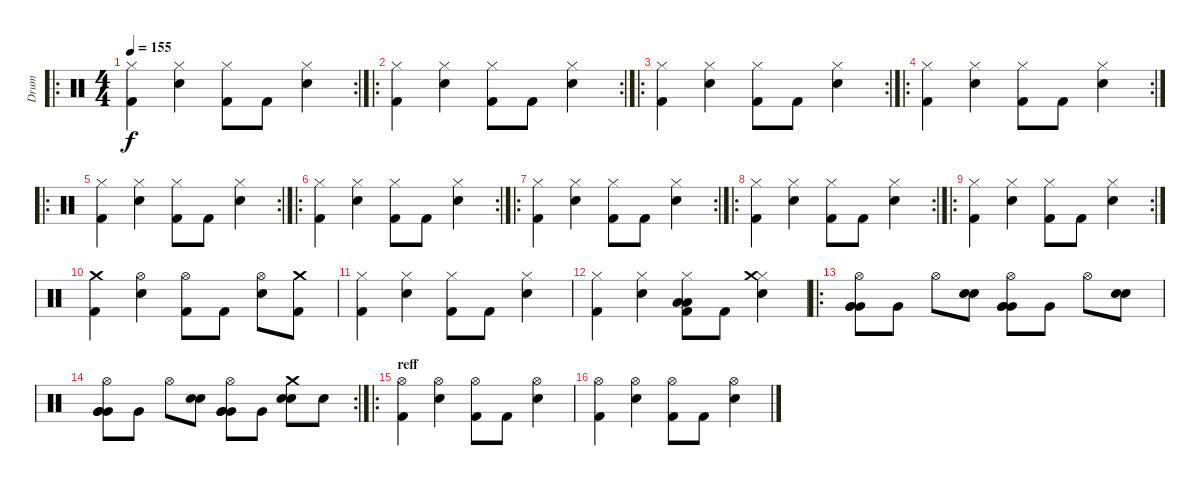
\track ("Drum" "Drum") {instrument percussion}
\staff {score}
\articulation defaults
\ro
\rc 2
\ts (4 4)
\tempo 155
\clef neutral
\ks c
("Hi-Hat (closed)" "Kick (hit) 2").4{dy f} ("Hi-Hat (closed)" "Snare (hit) 2").4 ("Hi-Hat (closed)" "Kick (hit) 2").8 "Kick (hit) 2".8 ("Snare (hit) 2" "Hi-Hat (closed)").4 |
\ro
\rc 2
("Hi-Hat (closed)" "Kick (hit) 2").4 ("Hi-Hat (closed)" "Snare (hit) 2").4 ("Hi-Hat (closed)" "Kick (hit) 2").8 "Kick (hit) 2".8 ("Snare (hit) 2" "Hi-Hat (closed)").4 |
\ro
\rc 2
("Hi-Hat (closed)" "Kick (hit) 2").4 ("Hi-Hat (closed)" "Snare (hit) 2").4 ("Hi-Hat (closed)" "Kick (hit) 2").8 "Kick (hit) 2".8 ("Snare (hit) 2" "Hi-Hat (closed)").4 |
\ro
\rc 2
("Hi-Hat (closed)" "Kick (hit) 2").4 ("Hi-Hat (closed)" "Snare (hit) 2").4 ("Hi-Hat (closed)" "Kick (hit) 2").8 "Kick (hit) 2".8 ("Snare (hit) 2" "Hi-Hat (closed)").4 |
\ro
\rc 2
("Hi-Hat (closed)" "Kick (hit) 2").4 ("Hi-Hat (closed)" "Snare (hit) 2").4 ("Hi-Hat (closed)" "Kick (hit) 2").8 "Kick (hit) 2".8 ("Snare (hit) 2" "Hi-Hat (closed)").4 |
\ro
\rc 2
("Hi-Hat (closed)" "Kick (hit) 2").4 ("Hi-Hat (closed)" "Snare (hit) 2").4 ("Hi-Hat (closed)" "Kick (hit) 2").8 "Kick (hit) 2".8 ("Snare (hit) 2" "Hi-Hat (closed)").4 |
\ro
\rc 2
("Hi-Hat (closed)" "Kick (hit) 2").4 ("Hi-Hat (closed)" "Snare (hit) 2").4 ("Hi-Hat (closed)" "Kick (hit) 2").8 "Kick (hit) 2".8 ("Snare (hit) 2" "Hi-Hat (closed)").4 |
\ro
\rc 2
("Hi-Hat (closed)" "Kick (hit) 2").4 ("Hi-Hat (closed)" "Snare (hit) 2").4 ("Hi-Hat (closed)" "Kick (hit) 2").8 "Kick (hit) 2".8 ("Snare (hit) 2" "Hi-Hat (closed)").4 |
\ro
\rc 2
("Hi-Hat (closed)" "Kick (hit) 2").4 ("Hi-Hat (closed)" "Snare (hit) 2").4 ("Hi-Hat (closed)" "Kick (hit) 2").8 "Kick (hit) 2".8 ("Snare (hit) 2" "Hi-Hat (closed)").4 |
("Kick (hit) 2" "Crash medium (hit)").4 ("Snare (hit) 2" "Hi-Hat (open)").4 ("Kick (hit) 2" "Hi-Hat (open)").8 "Kick (hit) 2".8 ("Hi-Hat (open)" "Snare (hit) 2").8 ("Crash medium (hit)" "Kick (hit) 2").8 |
("Hi-Hat (closed)" "Kick (hit) 2").4 ("Hi-Hat (closed)" "Snare (hit) 2").4 ("Hi-Hat (closed)" "Kick (hit) 2").8 "Kick (hit) 2".8 ("Snare (hit) 2" "Hi-Hat (closed)").4 |
("Hi-Hat (closed)" "Kick (hit) 2").4 ("Hi-Hat (closed)" "Snare (hit) 2").4 ("Low Floor Tom (hit)" "Hi-Hat (closed)" "Kick (hit) 2" "Low Floor Tom (hit)").8{bd 480} "Kick (hit) 2".8 ("Snare (hit) 2" "Hi-Hat (closed)" "Crash medium (hit)").4 |
\ro
("Very Low Tom (hit)" "Very Low Tom (hit)" "Hi-Hat (open)" "Very Low Tom (hit)").8{bd 480} "Very Low Tom (hit)".8 "Hi-Hat (open)".8 ("Snare (hit) 2" "Snare (hit) 2").8{bd 480} ("Very Low Tom (hit)" "Very Low Tom (hit)" "Hi-Hat (open)" "Very Low Tom (hit)").8{bd 480} "Very Low Tom (hit)".8 "Hi-Hat (open)".8 ("Snare (hit) 2" "Snare (hit) 2").8{bd 480} |
\rc 2
("Very Low Tom (hit)" "Very Low Tom (hit)" "Hi-Hat (open)" "Very Low Tom (hit)").8{bd 480} "Very Low Tom (hit)".8 "Hi-Hat (open)".8 ("Snare (hit) 2" "Snare (hit) 2").8{bd 480} ("Very Low Tom (hit)" "Very Low Tom (hit)" "Hi-Hat (open)" "Very Low Tom (hit)").8{bd 480} "Very Low Tom (hit)".8 ("Snare (hit) 2" "Snare (hit) 2" "Crash medium (hit)").8{bd 480} "Snare (hit) 2".8 |
\ro
\section ("" "reff")
("Hi-Hat (open)" "Kick (hit) 2").4 ("Hi-Hat (open)" "Snare (hit) 2").4 ("Hi-Hat (open)" "Kick (hit) 2").8 "Kick (hit) 2".8 ("Snare (hit) 2" "Hi-Hat (open)").4 |
("Hi-Hat (open)" "Kick (hit) 2").4 ("Hi-Hat (open)" "Snare (hit) 2").4 ("Hi-Hat (open)" "Kick (hit) 2").8 "Kick (hit) 2".8 ("Snare (hit) 2" "Hi-Hat (open)").4
